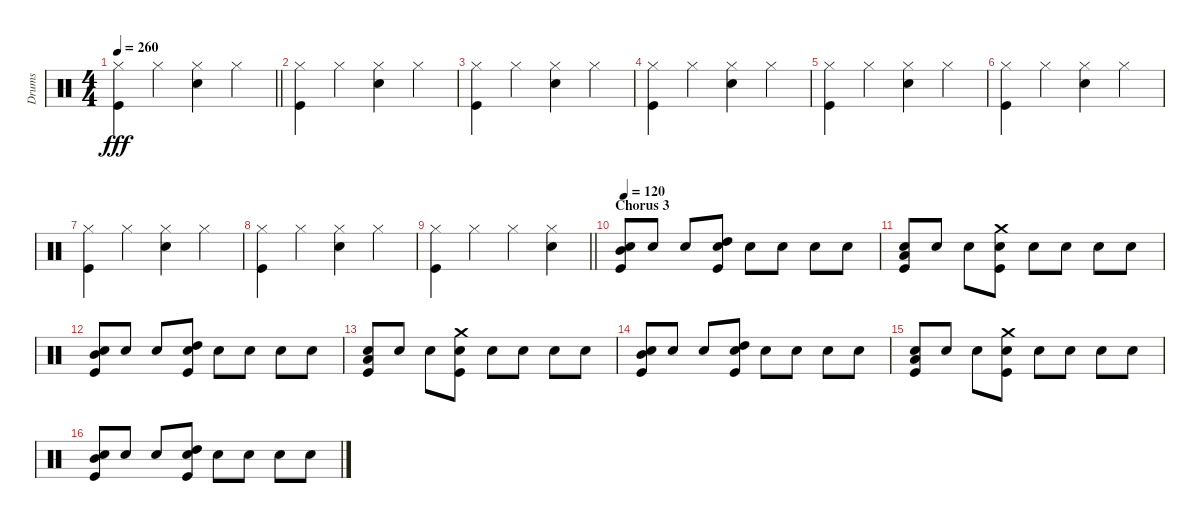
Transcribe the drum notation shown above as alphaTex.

\track ("Drums" "Drums") {instrument percussion}
\staff {score}
\articulation defaults
\ts (4 4)
\tempo 260
\clef neutral
\barLineRight lightlight
\ks c
("Hi-Hat (closed)" "Kick (hit)").4{dy fff} "Hi-Hat (closed)".4 ("Hi-Hat (closed)" "Snare (hit) 2").4 "Hi-Hat (closed)".4 |
("Hi-Hat (closed)" "Kick (hit)").4 "Hi-Hat (closed)".4 ("Hi-Hat (closed)" "Snare (hit) 2").4 "Hi-Hat (closed)".4 |
("Hi-Hat (closed)" "Kick (hit)").4 "Hi-Hat (closed)".4 ("Hi-Hat (closed)" "Snare (hit) 2").4 "Hi-Hat (closed)".4 |
("Hi-Hat (closed)" "Kick (hit)").4 "Hi-Hat (closed)".4 ("Hi-Hat (closed)" "Snare (hit) 2").4 "Hi-Hat (closed)".4 |
("Hi-Hat (closed)" "Kick (hit)").4 "Hi-Hat (closed)".4 ("Hi-Hat (closed)" "Snare (hit) 2").4 "Hi-Hat (closed)".4 |
("Hi-Hat (closed)" "Kick (hit)").4 "Hi-Hat (closed)".4 ("Hi-Hat (closed)" "Snare (hit) 2").4 "Hi-Hat (closed)".4 |
("Hi-Hat (closed)" "Kick (hit)").4 "Hi-Hat (closed)".4 ("Hi-Hat (closed)" "Snare (hit) 2").4 "Hi-Hat (closed)".4 |
("Hi-Hat (closed)" "Kick (hit)").4 "Hi-Hat (closed)".4 ("Hi-Hat (closed)" "Snare (hit) 2").4 "Hi-Hat (closed)".4 |
\barLineRight lightlight
("Hi-Hat (closed)" "Kick (hit)").4 "Hi-Hat (closed)".4 "Hi-Hat (closed)".4 ("Hi-Hat (closed)" "Snare (hit) 2").4 |
\section ("" "Chorus 3")
\tempo 120
("Snare (hit) 2" "Mid Tom (hit)" "Kick (hit)").8 "Snare (hit) 2".8 "Snare (hit) 2".8 ("Snare (hit) 2" "High Tom (hit)" "Kick (hit)").8 "Snare (hit) 2".8 "Snare (hit) 2".8 "Snare (hit) 2".8 "Snare (hit) 2".8 |
("Snare (hit) 2" "Low Floor Tom (hit)" "Kick (hit)").8 "Snare (hit) 2".8 "Snare (hit) 2".8 ("Snare (hit) 2" "Crash medium (hit)" "Kick (hit)").8 "Snare (hit) 2".8 "Snare (hit) 2".8 "Snare (hit) 2".8 "Snare (hit) 2".8 |
("Snare (hit) 2" "Mid Tom (hit)" "Kick (hit)").8 "Snare (hit) 2".8 "Snare (hit) 2".8 ("Snare (hit) 2" "High Tom (hit)" "Kick (hit)").8 "Snare (hit) 2".8 "Snare (hit) 2".8 "Snare (hit) 2".8 "Snare (hit) 2".8 |
("Snare (hit) 2" "Low Floor Tom (hit)" "Kick (hit)").8 "Snare (hit) 2".8 "Snare (hit) 2".8 ("Snare (hit) 2" "Crash medium (hit)" "Kick (hit)").8 "Snare (hit) 2".8 "Snare (hit) 2".8 "Snare (hit) 2".8 "Snare (hit) 2".8 |
("Snare (hit) 2" "Mid Tom (hit)" "Kick (hit)").8 "Snare (hit) 2".8 "Snare (hit) 2".8 ("Snare (hit) 2" "High Tom (hit)" "Kick (hit)").8 "Snare (hit) 2".8 "Snare (hit) 2".8 "Snare (hit) 2".8 "Snare (hit) 2".8 |
("Snare (hit) 2" "Low Floor Tom (hit)" "Kick (hit)").8 "Snare (hit) 2".8 "Snare (hit) 2".8 ("Snare (hit) 2" "Crash medium (hit)" "Kick (hit)").8 "Snare (hit) 2".8 "Snare (hit) 2".8 "Snare (hit) 2".8 "Snare (hit) 2".8 |
("Snare (hit) 2" "Mid Tom (hit)" "Kick (hit)").8 "Snare (hit) 2".8 "Snare (hit) 2".8 ("Snare (hit) 2" "High Tom (hit)" "Kick (hit)").8 "Snare (hit) 2".8 "Snare (hit) 2".8 "Snare (hit) 2".8 "Snare (hit) 2".8
